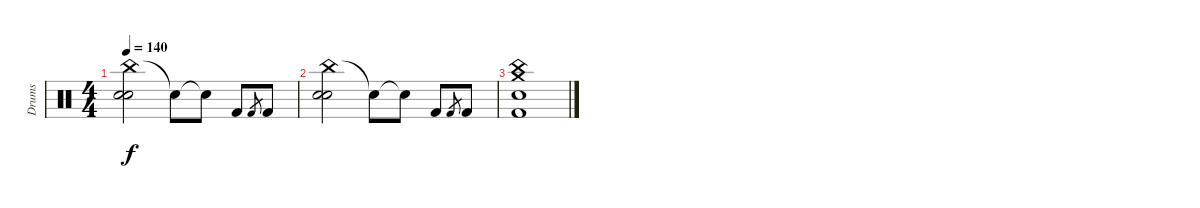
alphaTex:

\track ("Drums" "Drums") {instrument percussion}
\staff {score}
\articulation defaults
\ts (4 4)
\tempo 140
\clef neutral
\ks c
("China (hit)" "Snare (hit) 2" "Snare (hit) 2").2{dy f} "Snare (hit)"{t}.8 "Snare (hit)"{t}.8 "Kick (hit) 2".8 "Kick (hit) 2".8{gr} "Kick (hit) 2".8 |
("China (hit)" "Snare (hit) 2" "Snare (hit) 2").2 "Snare (hit)"{t}.8 "Snare (hit)"{t}.8 "Kick (hit) 2".8 "Kick (hit) 2".8{gr} "Kick (hit) 2".8 |
("China (hit)" "Crash medium (hit)" "Snare (hit) 2" "Kick (hit) 2").1
